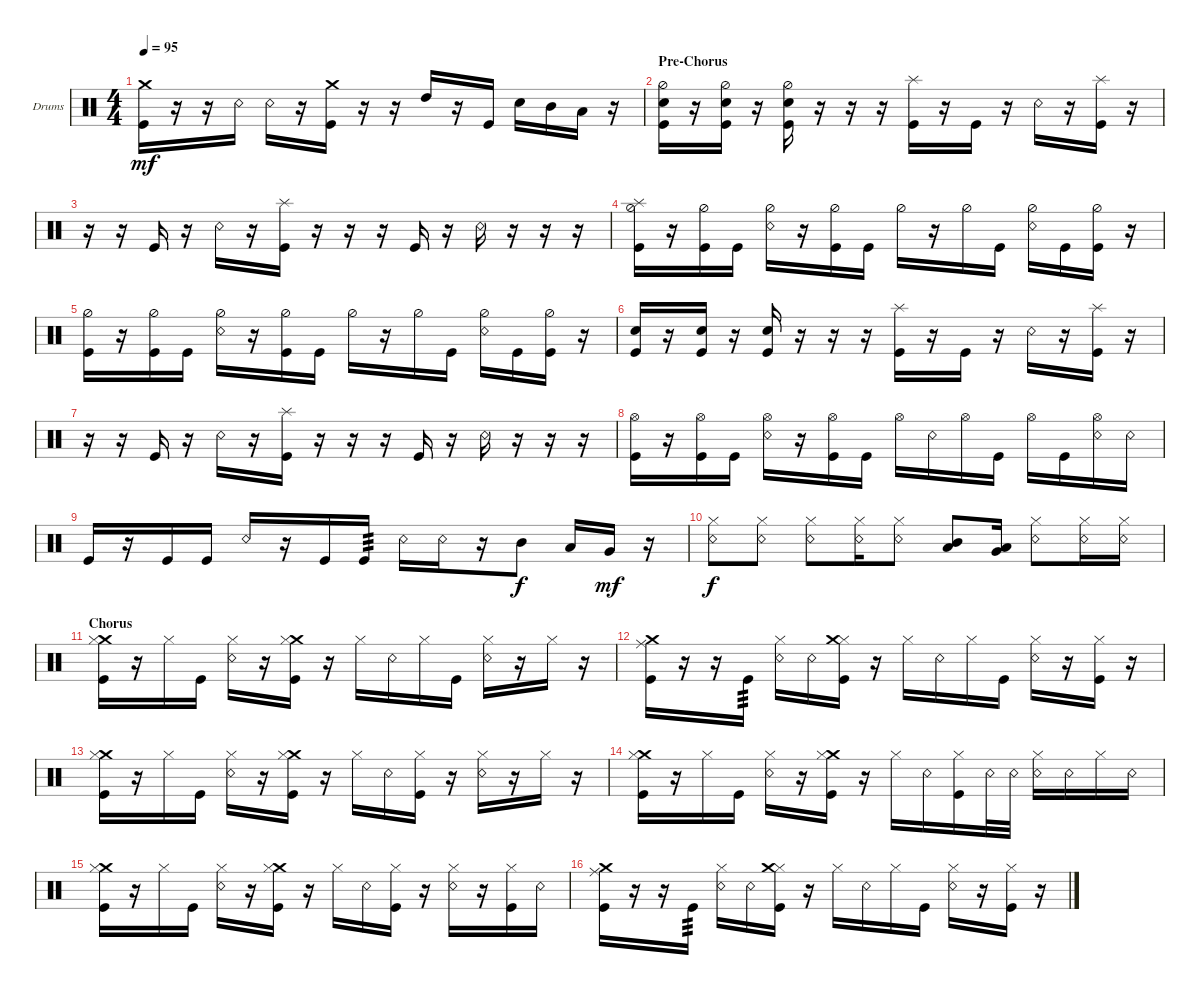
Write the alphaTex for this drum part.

\defaultSystemsLayout 4
\bracketExtendMode groupsimilarinstruments
\firstSystemTrackNameOrientation horizontal
\otherSystemsTrackNameOrientation horizontal
\track ("Drum [Tomoya]" "Drums") {instrument percussion}
\staff {score}
\articulation defaults
\ts (4 4)
\tempo 95
\clef neutral
\ks c
("Kick (hit)" "Crash medium (hit)").16{dy mf} r.16 r.16 "Snare (rim shot)".16 "Snare (rim shot)".16 r.16 ("Kick (hit)" "Crash medium (hit)").16 r.16 r.16 "High Tom (hit)".16 r.16 "Kick (hit)".16 "Snare (hit) 2".16 "Mid Tom (hit)".16 "Low Tom (hit)".16 r.16 |
\section ("" "Pre-Chorus")
("Snare (hit) 2" "Kick (hit)" "Hi-Hat (half)").16 r.16 ("Snare (hit) 2" "Kick (hit)" "Hi-Hat (half)").16 r.16 ("Snare (hit) 2" "Kick (hit)" "Hi-Hat (half)").16 r.16 r.16 r.16 ("Kick (hit)" "Splash (hit)").16 r.16 "Kick (hit)".16 r.16 "Snare (rim shot)".16 r.16 ("Kick (hit)" "Splash (hit)").16 r.16 |
r.16 r.16 "Kick (hit)".16 r.16 "Snare (rim shot)".16 r.16 ("Kick (hit)" "Splash (hit)").16 r.16 r.16 r.16 "Kick (hit)".16 r.16 "Snare (rim shot)".16 r.16 r.16 r.16 |
("Kick (hit)" "Hi-Hat (half)" "Splash (hit)").16 r.16 ("Kick (hit)" "Hi-Hat (half)").16 "Kick (hit)".16 ("Snare (rim shot)" "Hi-Hat (half)").16 r.16 ("Kick (hit)" "Hi-Hat (half)").16 "Kick (hit)".16 "Hi-Hat (half)".16 r.16 "Hi-Hat (half)".16 "Kick (hit)".16 ("Snare (rim shot)" "Hi-Hat (half)").16 "Kick (hit)".16 ("Kick (hit)" "Hi-Hat (half)").16 r.16 |
("Kick (hit)" "Hi-Hat (half)").16 r.16 ("Kick (hit)" "Hi-Hat (half)").16 "Kick (hit)".16 ("Snare (rim shot)" "Hi-Hat (half)").16 r.16 ("Kick (hit)" "Hi-Hat (half)").16 "Kick (hit)".16 "Hi-Hat (half)".16 r.16 "Hi-Hat (half)".16 "Kick (hit)".16 ("Snare (rim shot)" "Hi-Hat (half)").16 "Kick (hit)".16 ("Kick (hit)" "Hi-Hat (half)").16 r.16 |
("Snare (hit) 2" "Kick (hit)").16 r.16 ("Snare (hit) 2" "Kick (hit)").16 r.16 ("Snare (hit) 2" "Kick (hit)").16 r.16 r.16 r.16 ("Kick (hit)" "Splash (hit)").16 r.16 "Kick (hit)".16 r.16 "Snare (rim shot)".16 r.16 ("Kick (hit)" "Splash (hit)").16 r.16 |
r.16 r.16 "Kick (hit)".16 r.16 "Snare (rim shot)".16 r.16 ("Kick (hit)" "Splash (hit)").16 r.16 r.16 r.16 "Kick (hit)".16 r.16 "Snare (rim shot)".16 r.16 r.16 r.16 |
("Kick (hit)" "Hi-Hat (open)").16 r.16 ("Kick (hit)" "Hi-Hat (open)").16 "Kick (hit)".16 ("Snare (rim shot)" "Hi-Hat (open)").16 r.16 ("Kick (hit)" "Hi-Hat (open)").16 "Kick (hit)".16 "Hi-Hat (open)".16 "Snare (rim shot)".16 "Hi-Hat (open)".16 "Kick (hit)".16 "Hi-Hat (open)".16 "Kick (hit)".16 ("Snare (rim shot)" "Hi-Hat (open)").16 "Snare (rim shot)".16 |
"Kick (hit)".16 r.16 "Kick (hit)".16 "Kick (hit)".16 "Snare (rim shot)".16 r.16 "Kick (hit)".16 "Kick (hit)".16{tp 3} "Snare (rim shot)".16 "Snare (rim shot)".16 r.16 "Mid Tom (hit)".8{dy f} "Low Tom (hit)".16 "Very Low Tom (hit)".16{dy mf} r.16 |
("Snare (rim shot)" "Hi-Hat (closed)").8{dy f} ("Snare (rim shot)" "Hi-Hat (closed)").8 ("Snare (rim shot)" "Hi-Hat (closed)").8 ("Snare (rim shot)" "Hi-Hat (closed)").16 ("Snare (rim shot)" "Hi-Hat (closed)").8 ("Mid Tom (hit)" "Low Tom (hit)").8 ("Very Low Tom (hit)" "Low Tom (hit)").16 ("Snare (rim shot)" "Hi-Hat (closed)").8 ("Snare (rim shot)" "Hi-Hat (closed)").16 ("Snare (rim shot)" "Hi-Hat (closed)").16 |
\section ("" "Chorus")
("Kick (hit)" "Crash medium (hit)" "Hi-Hat (closed)").16 r.16 "Hi-Hat (closed)".16 "Kick (hit)".16 ("Snare (rim shot)" "Hi-Hat (closed)").16 r.16 ("Kick (hit)" "Crash medium (hit)" "Hi-Hat (closed)").16 r.16 "Hi-Hat (closed)".16 "Snare (rim shot)".16 "Hi-Hat (closed)".16 "Kick (hit)".16 ("Snare (rim shot)" "Hi-Hat (closed)").16 r.16 "Hi-Hat (closed)".16 r.16 |
("Kick (hit)" "Crash medium (hit)" "Ride (middle)").16 r.16 r.16 "Kick (hit)".16{tp 3} ("Snare (rim shot)" "Hi-Hat (closed)").16 "Snare (rim shot)".16 ("Kick (hit)" "Hi-Hat (closed)" "Crash medium (hit)").16 r.16 "Hi-Hat (closed)".16 "Snare (rim shot)".16 "Hi-Hat (closed)".16 "Kick (hit)".16 ("Snare (rim shot)" "Hi-Hat (closed)").16 r.16 ("Kick (hit)" "Hi-Hat (closed)").16 r.16 |
("Kick (hit)" "Crash medium (hit)" "Hi-Hat (closed)").16 r.16 "Hi-Hat (closed)".16 "Kick (hit)".16 ("Snare (rim shot)" "Hi-Hat (closed)").16 r.16 ("Kick (hit)" "Crash medium (hit)" "Hi-Hat (closed)").16 r.16 "Hi-Hat (closed)".16 "Snare (rim shot)".16 ("Hi-Hat (closed)" "Kick (hit)").16 r.16 ("Snare (rim shot)" "Hi-Hat (closed)").16 r.16 "Hi-Hat (closed)".16 r.16 |
("Kick (hit)" "Crash medium (hit)" "Hi-Hat (closed)").16 r.16 "Hi-Hat (closed)".16 "Kick (hit)".16 ("Snare (rim shot)" "Hi-Hat (closed)").16 r.16 ("Kick (hit)" "Crash medium (hit)" "Hi-Hat (closed)").16 r.16 "Hi-Hat (closed)".16 "Snare (rim shot)".16 ("Hi-Hat (closed)" "Kick (hit)").16 "Snare (rim shot)".32 "Snare (rim shot)".32 ("Snare (rim shot)" "Hi-Hat (closed)").16 "Snare (rim shot)".16 "Hi-Hat (closed)".16 "Snare (rim shot)".16 |
("Kick (hit)" "Crash medium (hit)" "Hi-Hat (closed)").16 r.16 "Hi-Hat (closed)".16 "Kick (hit)".16 ("Snare (rim shot)" "Hi-Hat (closed)").16 r.16 ("Kick (hit)" "Crash medium (hit)" "Hi-Hat (closed)").16 r.16 "Hi-Hat (closed)".16 "Snare (rim shot)".16 ("Hi-Hat (closed)" "Kick (hit)").16 r.16 ("Snare (rim shot)" "Hi-Hat (closed)").16 r.16 ("Hi-Hat (closed)" "Kick (hit)").16 "Snare (rim shot)".16 |
("Kick (hit)" "Crash medium (hit)" "Ride (middle)").16 r.16 r.16 "Kick (hit)".16{tp 3} ("Snare (rim shot)" "Hi-Hat (closed)").16 "Snare (rim shot)".16 ("Kick (hit)" "Hi-Hat (closed)" "Crash medium (hit)").16 r.16 "Hi-Hat (closed)".16 "Snare (rim shot)".16 "Hi-Hat (closed)".16 "Kick (hit)".16 ("Snare (rim shot)" "Hi-Hat (closed)").16 r.16 ("Kick (hit)" "Hi-Hat (closed)").16 r.16
